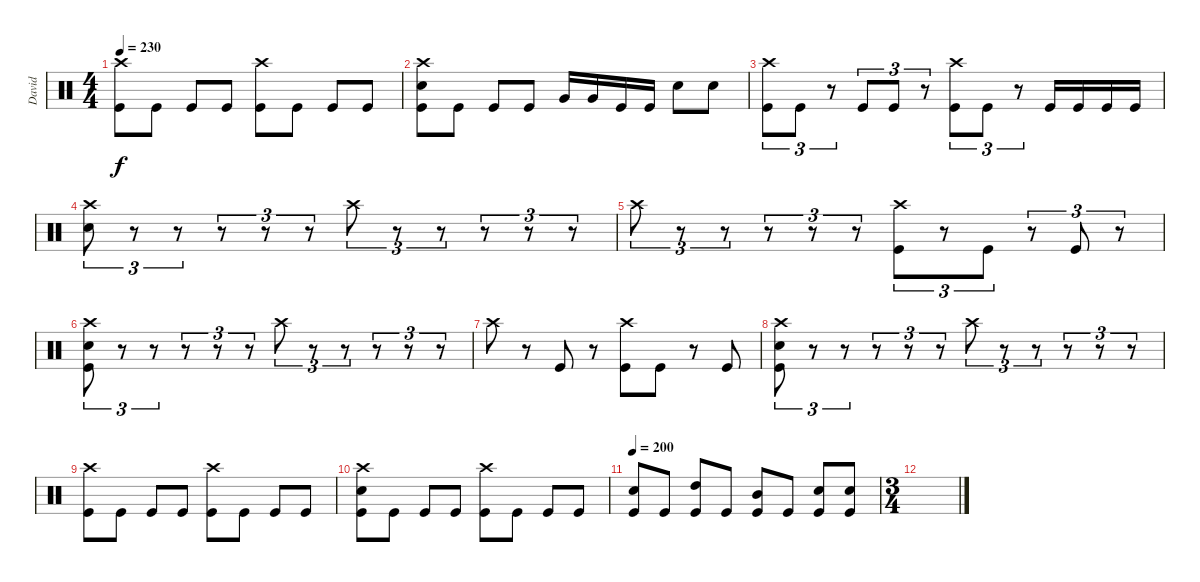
\track ("David" "David") {instrument percussion}
\staff {score}
\articulation defaults
\ts (4 4)
\tempo 230
\clef neutral
\ks c
("Crash high (hit)" "Kick (hit)").8{dy f} "Kick (hit)".8 "Kick (hit)".8 "Kick (hit)".8 ("Crash high (hit)" "Kick (hit)").8 "Kick (hit)".8 "Kick (hit)".8 "Kick (hit)".8 |
("Crash high (hit)" "Electric Snare (hit)" "Kick (hit)").8 "Kick (hit)".8 "Kick (hit)".8 "Kick (hit)".8 "Very Low Tom (hit)".16 "Very Low Tom (hit)".16 "Kick (hit)".16 "Kick (hit)".16 "Electric Snare (hit)".8 "Electric Snare (hit)".8 |
("Crash high (hit)" "Kick (hit)").8{tu (3 2)} "Kick (hit)".8{tu (3 2)} r.8{tu (3 2)} "Kick (hit)".8{tu (3 2)} "Kick (hit)".8{tu (3 2)} r.8{tu (3 2)} ("Crash high (hit)" "Kick (hit)").8{tu (3 2)} "Kick (hit)".8{tu (3 2)} r.8{tu (3 2)} "Kick (hit)".16 "Kick (hit)".16 "Kick (hit)".16 "Kick (hit)".16 |
("Crash high (hit)" "Electric Snare (hit)").8{tu (3 2)} r.8{tu (3 2)} r.8{tu (3 2)} r.8{tu (3 2)} r.8{tu (3 2)} r.8{tu (3 2)} "Crash high (hit)".8{tu (3 2)} r.8{tu (3 2)} r.8{tu (3 2)} r.8{tu (3 2)} r.8{tu (3 2)} r.8{tu (3 2)} |
"Crash high (hit)".8{tu (3 2)} r.8{tu (3 2)} r.8{tu (3 2)} r.8{tu (3 2)} r.8{tu (3 2)} r.8{tu (3 2)} ("Crash high (hit)" "Kick (hit)").8{tu (3 2)} r.8{tu (3 2)} "Kick (hit)".8{tu (3 2)} r.8{tu (3 2)} "Kick (hit)".8{tu (3 2)} r.8{tu (3 2)} |
("Crash high (hit)" "Electric Snare (hit)" "Kick (hit)").8{tu (3 2)} r.8{tu (3 2)} r.8{tu (3 2)} r.8{tu (3 2)} r.8{tu (3 2)} r.8{tu (3 2)} "Crash high (hit)".8{tu (3 2)} r.8{tu (3 2)} r.8{tu (3 2)} r.8{tu (3 2)} r.8{tu (3 2)} r.8{tu (3 2)} |
"Crash high (hit)".8 r.8 "Kick (hit)".8 r.8 ("Crash high (hit)" "Kick (hit)").8 "Kick (hit)".8 r.8 "Kick (hit)".8 |
("Crash high (hit)" "Electric Snare (hit)" "Kick (hit)").8{tu (3 2)} r.8{tu (3 2)} r.8{tu (3 2)} r.8{tu (3 2)} r.8{tu (3 2)} r.8{tu (3 2)} "Crash high (hit)".8{tu (3 2)} r.8{tu (3 2)} r.8{tu (3 2)} r.8{tu (3 2)} r.8{tu (3 2)} r.8{tu (3 2)} |
("Crash high (hit)" "Kick (hit)").8 "Kick (hit)".8 "Kick (hit)".8 "Kick (hit)".8 ("Crash high (hit)" "Kick (hit)").8 "Kick (hit)".8 "Kick (hit)".8 "Kick (hit)".8 |
("Crash high (hit)" "Electric Snare (hit)" "Kick (hit)").8 "Kick (hit)".8 "Kick (hit)".8 "Kick (hit)".8 ("Crash high (hit)" "Kick (hit)").8 "Kick (hit)".8 "Kick (hit)".8 "Kick (hit)".8 |
\tempo 200
("Electric Snare (hit)" "Kick (hit)").8 "Kick (hit)".8 ("High Tom (hit)" "Kick (hit)").8 "Kick (hit)".8 ("Mid Tom (hit)" "Kick (hit)").8 "Kick (hit)".8 ("Electric Snare (hit)" "Kick (hit)").8 ("Electric Snare (hit)" "Kick (hit)").8 |
\ts (3 4)
